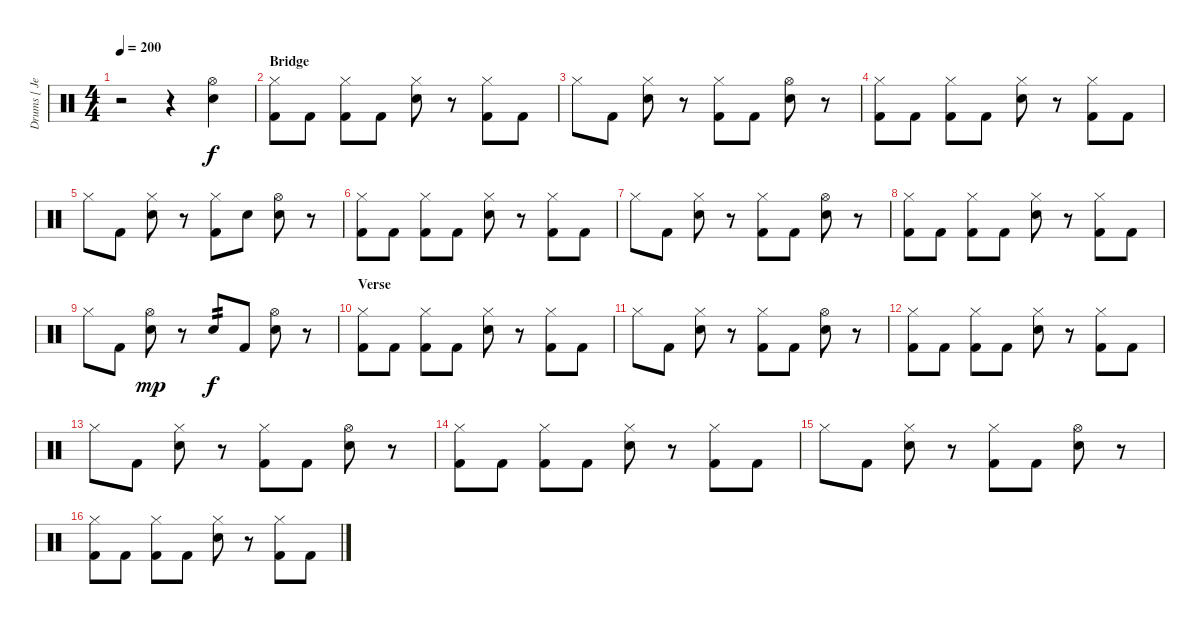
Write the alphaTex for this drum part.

\track ("Drums [ Jesse Ingelevics ]" "Drums [ Je") {instrument percussion}
\staff {score}
\articulation defaults
\ts (4 4)
\tempo 200
\clef neutral
\ks c
r.2{dy f} r.4 ("Hi-Hat (open)" "Electric Snare (hit)").4 |
\section ("" "Bridge")
("Hi-Hat (closed)" "Kick (hit) 2").8 "Kick (hit) 2".8 ("Hi-Hat (closed)" "Kick (hit) 2").8 "Kick (hit) 2".8 ("Hi-Hat (closed)" "Electric Snare (hit)").8 r.8 ("Hi-Hat (closed)" "Kick (hit) 2").8 "Kick (hit) 2".8 |
"Hi-Hat (closed)".8 "Kick (hit) 2".8 ("Hi-Hat (closed)" "Electric Snare (hit)").8 r.8 ("Hi-Hat (closed)" "Kick (hit) 2").8 "Kick (hit) 2".8 ("Hi-Hat (open)" "Electric Snare (hit)").8 r.8 |
("Hi-Hat (closed)" "Kick (hit) 2").8 "Kick (hit) 2".8 ("Hi-Hat (closed)" "Kick (hit) 2").8 "Kick (hit) 2".8 ("Hi-Hat (closed)" "Electric Snare (hit)").8 r.8 ("Hi-Hat (closed)" "Kick (hit) 2").8 "Kick (hit) 2".8 |
"Hi-Hat (closed)".8 "Kick (hit) 2".8 ("Hi-Hat (closed)" "Electric Snare (hit)").8 r.8 ("Hi-Hat (closed)" "Kick (hit) 2").8 "Electric Snare (hit)".8 ("Hi-Hat (open)" "Electric Snare (hit)").8 r.8 |
("Hi-Hat (closed)" "Kick (hit) 2").8 "Kick (hit) 2".8 ("Hi-Hat (closed)" "Kick (hit) 2").8 "Kick (hit) 2".8 ("Hi-Hat (closed)" "Electric Snare (hit)").8 r.8 ("Hi-Hat (closed)" "Kick (hit) 2").8 "Kick (hit) 2".8 |
"Hi-Hat (closed)".8 "Kick (hit) 2".8 ("Hi-Hat (closed)" "Electric Snare (hit)").8 r.8 ("Hi-Hat (closed)" "Kick (hit) 2").8 "Kick (hit) 2".8 ("Hi-Hat (open)" "Electric Snare (hit)").8 r.8 |
("Hi-Hat (closed)" "Kick (hit) 2").8 "Kick (hit) 2".8 ("Hi-Hat (closed)" "Kick (hit) 2").8 "Kick (hit) 2".8 ("Hi-Hat (closed)" "Electric Snare (hit)").8 r.8 ("Hi-Hat (closed)" "Kick (hit) 2").8 "Kick (hit) 2".8 |
"Hi-Hat (closed)".8 "Kick (hit) 2".8 ("Hi-Hat (open)" "Electric Snare (hit)").8{dy mp} r.8 "Electric Snare (hit)".8{tp 2 dy f} "Kick (hit) 2".8 ("Hi-Hat (open)" "Electric Snare (hit)").8 r.8 |
\section ("" "Verse")
("Hi-Hat (closed)" "Kick (hit) 2").8 "Kick (hit) 2".8 ("Hi-Hat (closed)" "Kick (hit) 2").8 "Kick (hit) 2".8 ("Hi-Hat (closed)" "Electric Snare (hit)").8 r.8 ("Hi-Hat (closed)" "Kick (hit) 2").8 "Kick (hit) 2".8 |
"Hi-Hat (closed)".8 "Kick (hit) 2".8 ("Hi-Hat (closed)" "Electric Snare (hit)").8 r.8 ("Hi-Hat (closed)" "Kick (hit) 2").8 "Kick (hit) 2".8 ("Hi-Hat (open)" "Electric Snare (hit)").8 r.8 |
("Hi-Hat (closed)" "Kick (hit) 2").8 "Kick (hit) 2".8 ("Hi-Hat (closed)" "Kick (hit) 2").8 "Kick (hit) 2".8 ("Hi-Hat (closed)" "Electric Snare (hit)").8 r.8 ("Hi-Hat (closed)" "Kick (hit) 2").8 "Kick (hit) 2".8 |
"Hi-Hat (closed)".8 "Kick (hit) 2".8 ("Hi-Hat (closed)" "Electric Snare (hit)").8 r.8 ("Hi-Hat (closed)" "Kick (hit) 2").8 "Kick (hit) 2".8 ("Hi-Hat (open)" "Electric Snare (hit)").8 r.8 |
("Hi-Hat (closed)" "Kick (hit) 2").8 "Kick (hit) 2".8 ("Hi-Hat (closed)" "Kick (hit) 2").8 "Kick (hit) 2".8 ("Hi-Hat (closed)" "Electric Snare (hit)").8 r.8 ("Hi-Hat (closed)" "Kick (hit) 2").8 "Kick (hit) 2".8 |
"Hi-Hat (closed)".8 "Kick (hit) 2".8 ("Hi-Hat (closed)" "Electric Snare (hit)").8 r.8 ("Hi-Hat (closed)" "Kick (hit) 2").8 "Kick (hit) 2".8 ("Hi-Hat (open)" "Electric Snare (hit)").8 r.8 |
("Hi-Hat (closed)" "Kick (hit) 2").8 "Kick (hit) 2".8 ("Hi-Hat (closed)" "Kick (hit) 2").8 "Kick (hit) 2".8 ("Hi-Hat (closed)" "Electric Snare (hit)").8 r.8 ("Hi-Hat (closed)" "Kick (hit) 2").8 "Kick (hit) 2".8
